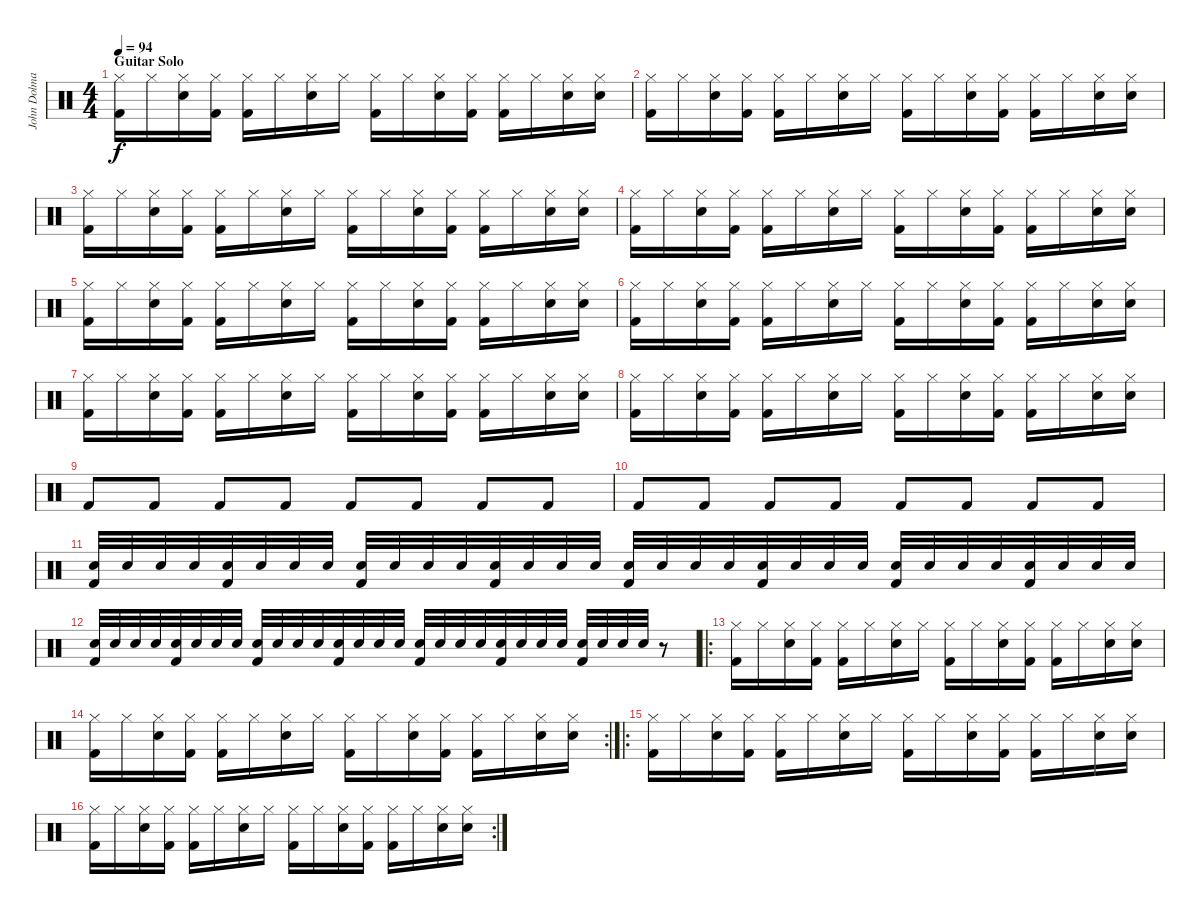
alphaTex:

\track ("John Dolmayan" "John Dolma") {instrument percussion}
\staff {score}
\articulation defaults
\ts (4 4)
\section ("" "Guitar Solo")
\tempo 94
\clef neutral
\ks c
("Kick (hit) 2" "Hi-Hat (closed)").16{dy f} "Hi-Hat (closed)".16 ("Snare (hit) 2" "Hi-Hat (closed)").16 ("Kick (hit) 2" "Hi-Hat (closed)").16 ("Kick (hit) 2" "Hi-Hat (closed)").16 "Hi-Hat (closed)".16 ("Snare (hit) 2" "Hi-Hat (closed)").16 "Hi-Hat (closed)".16 ("Kick (hit) 2" "Hi-Hat (closed)").16 "Hi-Hat (closed)".16 ("Snare (hit) 2" "Hi-Hat (closed)").16 ("Kick (hit) 2" "Hi-Hat (closed)").16 ("Kick (hit) 2" "Hi-Hat (closed)").16 "Hi-Hat (closed)".16 ("Snare (hit) 2" "Hi-Hat (closed)").16 ("Snare (hit) 2" "Hi-Hat (closed)").16 |
("Kick (hit) 2" "Hi-Hat (closed)").16 "Hi-Hat (closed)".16 ("Snare (hit) 2" "Hi-Hat (closed)").16 ("Kick (hit) 2" "Hi-Hat (closed)").16 ("Kick (hit) 2" "Hi-Hat (closed)").16 "Hi-Hat (closed)".16 ("Snare (hit) 2" "Hi-Hat (closed)").16 "Hi-Hat (closed)".16 ("Kick (hit) 2" "Hi-Hat (closed)").16 "Hi-Hat (closed)".16 ("Snare (hit) 2" "Hi-Hat (closed)").16 ("Kick (hit) 2" "Hi-Hat (closed)").16 ("Kick (hit) 2" "Hi-Hat (closed)").16 "Hi-Hat (closed)".16 ("Snare (hit) 2" "Hi-Hat (closed)").16 ("Snare (hit) 2" "Hi-Hat (closed)").16 |
("Kick (hit) 2" "Hi-Hat (closed)").16 "Hi-Hat (closed)".16 ("Snare (hit) 2" "Hi-Hat (closed)").16 ("Kick (hit) 2" "Hi-Hat (closed)").16 ("Kick (hit) 2" "Hi-Hat (closed)").16 "Hi-Hat (closed)".16 ("Snare (hit) 2" "Hi-Hat (closed)").16 "Hi-Hat (closed)".16 ("Kick (hit) 2" "Hi-Hat (closed)").16 "Hi-Hat (closed)".16 ("Snare (hit) 2" "Hi-Hat (closed)").16 ("Kick (hit) 2" "Hi-Hat (closed)").16 ("Kick (hit) 2" "Hi-Hat (closed)").16 "Hi-Hat (closed)".16 ("Snare (hit) 2" "Hi-Hat (closed)").16 ("Snare (hit) 2" "Hi-Hat (closed)").16 |
("Kick (hit) 2" "Hi-Hat (closed)").16 "Hi-Hat (closed)".16 ("Snare (hit) 2" "Hi-Hat (closed)").16 ("Kick (hit) 2" "Hi-Hat (closed)").16 ("Kick (hit) 2" "Hi-Hat (closed)").16 "Hi-Hat (closed)".16 ("Snare (hit) 2" "Hi-Hat (closed)").16 "Hi-Hat (closed)".16 ("Kick (hit) 2" "Hi-Hat (closed)").16 "Hi-Hat (closed)".16 ("Snare (hit) 2" "Hi-Hat (closed)").16 ("Kick (hit) 2" "Hi-Hat (closed)").16 ("Kick (hit) 2" "Hi-Hat (closed)").16 "Hi-Hat (closed)".16 ("Snare (hit) 2" "Hi-Hat (closed)").16 ("Snare (hit) 2" "Hi-Hat (closed)").16 |
("Kick (hit) 2" "Hi-Hat (closed)").16 "Hi-Hat (closed)".16 ("Snare (hit) 2" "Hi-Hat (closed)").16 ("Kick (hit) 2" "Hi-Hat (closed)").16 ("Kick (hit) 2" "Hi-Hat (closed)").16 "Hi-Hat (closed)".16 ("Snare (hit) 2" "Hi-Hat (closed)").16 "Hi-Hat (closed)".16 ("Kick (hit) 2" "Hi-Hat (closed)").16 "Hi-Hat (closed)".16 ("Snare (hit) 2" "Hi-Hat (closed)").16 ("Kick (hit) 2" "Hi-Hat (closed)").16 ("Kick (hit) 2" "Hi-Hat (closed)").16 "Hi-Hat (closed)".16 ("Snare (hit) 2" "Hi-Hat (closed)").16 ("Snare (hit) 2" "Hi-Hat (closed)").16 |
("Kick (hit) 2" "Hi-Hat (closed)").16 "Hi-Hat (closed)".16 ("Snare (hit) 2" "Hi-Hat (closed)").16 ("Kick (hit) 2" "Hi-Hat (closed)").16 ("Kick (hit) 2" "Hi-Hat (closed)").16 "Hi-Hat (closed)".16 ("Snare (hit) 2" "Hi-Hat (closed)").16 "Hi-Hat (closed)".16 ("Kick (hit) 2" "Hi-Hat (closed)").16 "Hi-Hat (closed)".16 ("Snare (hit) 2" "Hi-Hat (closed)").16 ("Kick (hit) 2" "Hi-Hat (closed)").16 ("Kick (hit) 2" "Hi-Hat (closed)").16 "Hi-Hat (closed)".16 ("Snare (hit) 2" "Hi-Hat (closed)").16 ("Snare (hit) 2" "Hi-Hat (closed)").16 |
("Kick (hit) 2" "Hi-Hat (closed)").16 "Hi-Hat (closed)".16 ("Snare (hit) 2" "Hi-Hat (closed)").16 ("Kick (hit) 2" "Hi-Hat (closed)").16 ("Kick (hit) 2" "Hi-Hat (closed)").16 "Hi-Hat (closed)".16 ("Snare (hit) 2" "Hi-Hat (closed)").16 "Hi-Hat (closed)".16 ("Kick (hit) 2" "Hi-Hat (closed)").16 "Hi-Hat (closed)".16 ("Snare (hit) 2" "Hi-Hat (closed)").16 ("Kick (hit) 2" "Hi-Hat (closed)").16 ("Kick (hit) 2" "Hi-Hat (closed)").16 "Hi-Hat (closed)".16 ("Snare (hit) 2" "Hi-Hat (closed)").16 ("Snare (hit) 2" "Hi-Hat (closed)").16 |
("Kick (hit) 2" "Hi-Hat (closed)").16 "Hi-Hat (closed)".16 ("Snare (hit) 2" "Hi-Hat (closed)").16 ("Kick (hit) 2" "Hi-Hat (closed)").16 ("Kick (hit) 2" "Hi-Hat (closed)").16 "Hi-Hat (closed)".16 ("Snare (hit) 2" "Hi-Hat (closed)").16 "Hi-Hat (closed)".16 ("Kick (hit) 2" "Hi-Hat (closed)").16 "Hi-Hat (closed)".16 ("Snare (hit) 2" "Hi-Hat (closed)").16 ("Kick (hit) 2" "Hi-Hat (closed)").16 ("Kick (hit) 2" "Hi-Hat (closed)").16 "Hi-Hat (closed)".16 ("Snare (hit) 2" "Hi-Hat (closed)").16 ("Snare (hit) 2" "Hi-Hat (closed)").16 |
"Kick (hit) 2".8 "Kick (hit) 2".8 "Kick (hit) 2".8 "Kick (hit) 2".8 "Kick (hit) 2".8 "Kick (hit) 2".8 "Kick (hit) 2".8 "Kick (hit) 2".8 |
"Kick (hit) 2".8 "Kick (hit) 2".8 "Kick (hit) 2".8 "Kick (hit) 2".8 "Kick (hit) 2".8 "Kick (hit) 2".8 "Kick (hit) 2".8 "Kick (hit) 2".8 |
("Kick (hit) 2" "Snare (hit) 2").32{volume 0} "Snare (hit) 2".32 "Snare (hit) 2".32 "Snare (hit) 2".32 ("Kick (hit) 2" "Snare (hit) 2").32{volume 1} "Snare (hit) 2".32 "Snare (hit) 2".32 "Snare (hit) 2".32 ("Kick (hit) 2" "Snare (hit) 2").32{volume 2} "Snare (hit) 2".32 "Snare (hit) 2".32 "Snare (hit) 2".32 ("Kick (hit) 2" "Snare (hit) 2").32{volume 3} "Snare (hit) 2".32 "Snare (hit) 2".32 "Snare (hit) 2".32 ("Kick (hit) 2" "Snare (hit) 2").32{volume 4} "Snare (hit) 2".32 "Snare (hit) 2".32 "Snare (hit) 2".32 ("Kick (hit) 2" "Snare (hit) 2").32{volume 5} "Snare (hit) 2".32 "Snare (hit) 2".32 "Snare (hit) 2".32 ("Kick (hit) 2" "Snare (hit) 2").32{volume 6} "Snare (hit) 2".32 "Snare (hit) 2".32 "Snare (hit) 2".32 ("Kick (hit) 2" "Snare (hit) 2").32{volume 7} "Snare (hit) 2".32 "Snare (hit) 2".32 "Snare (hit) 2".32 |
("Kick (hit) 2" "Snare (hit) 2").32{volume 8} "Snare (hit) 2".32 "Snare (hit) 2".32 "Snare (hit) 2".32 ("Kick (hit) 2" "Snare (hit) 2").32{volume 9} "Snare (hit) 2".32 "Snare (hit) 2".32 "Snare (hit) 2".32 ("Kick (hit) 2" "Snare (hit) 2").32{volume 10} "Snare (hit) 2".32 "Snare (hit) 2".32 "Snare (hit) 2".32 ("Kick (hit) 2" "Snare (hit) 2").32{volume 11} "Snare (hit) 2".32 "Snare (hit) 2".32 "Snare (hit) 2".32 ("Kick (hit) 2" "Snare (hit) 2").32{volume 12} "Snare (hit) 2".32 "Snare (hit) 2".32 "Snare (hit) 2".32 ("Kick (hit) 2" "Snare (hit) 2").32{volume 12} "Snare (hit) 2".32 "Snare (hit) 2".32 "Snare (hit) 2".32 ("Kick (hit) 2" "Snare (hit) 2").32{volume 12} "Snare (hit) 2".32 "Snare (hit) 2".32 "Snare (hit) 2".32 r.8 |
\ro
("Kick (hit) 2" "Hi-Hat (closed)").16 "Hi-Hat (closed)".16 ("Snare (hit) 2" "Hi-Hat (closed)").16 ("Kick (hit) 2" "Hi-Hat (closed)").16 ("Kick (hit) 2" "Hi-Hat (closed)").16 "Hi-Hat (closed)".16 ("Snare (hit) 2" "Hi-Hat (closed)").16 "Hi-Hat (closed)".16 ("Kick (hit) 2" "Hi-Hat (closed)").16 "Hi-Hat (closed)".16 ("Snare (hit) 2" "Hi-Hat (closed)").16 ("Kick (hit) 2" "Hi-Hat (closed)").16 ("Kick (hit) 2" "Hi-Hat (closed)").16 "Hi-Hat (closed)".16 ("Snare (hit) 2" "Hi-Hat (closed)").16 ("Snare (hit) 2" "Hi-Hat (closed)").16 |
\rc 2
("Kick (hit) 2" "Hi-Hat (closed)").16 "Hi-Hat (closed)".16 ("Snare (hit) 2" "Hi-Hat (closed)").16 ("Kick (hit) 2" "Hi-Hat (closed)").16 ("Kick (hit) 2" "Hi-Hat (closed)").16 "Hi-Hat (closed)".16 ("Snare (hit) 2" "Hi-Hat (closed)").16 "Hi-Hat (closed)".16 ("Kick (hit) 2" "Hi-Hat (closed)").16 "Hi-Hat (closed)".16 ("Snare (hit) 2" "Hi-Hat (closed)").16 ("Kick (hit) 2" "Hi-Hat (closed)").16 ("Kick (hit) 2" "Hi-Hat (closed)").16 "Hi-Hat (closed)".16 ("Snare (hit) 2" "Hi-Hat (closed)").16 ("Snare (hit) 2" "Hi-Hat (closed)").16 |
\ro
("Kick (hit) 2" "Hi-Hat (closed)").16 "Hi-Hat (closed)".16 ("Snare (hit) 2" "Hi-Hat (closed)").16 ("Kick (hit) 2" "Hi-Hat (closed)").16 ("Kick (hit) 2" "Hi-Hat (closed)").16 "Hi-Hat (closed)".16 ("Snare (hit) 2" "Hi-Hat (closed)").16 "Hi-Hat (closed)".16 ("Kick (hit) 2" "Hi-Hat (closed)").16 "Hi-Hat (closed)".16 ("Snare (hit) 2" "Hi-Hat (closed)").16 ("Kick (hit) 2" "Hi-Hat (closed)").16 ("Kick (hit) 2" "Hi-Hat (closed)").16 "Hi-Hat (closed)".16 ("Snare (hit) 2" "Hi-Hat (closed)").16 ("Snare (hit) 2" "Hi-Hat (closed)").16 |
\rc 2
("Kick (hit) 2" "Hi-Hat (closed)").16 "Hi-Hat (closed)".16 ("Snare (hit) 2" "Hi-Hat (closed)").16 ("Kick (hit) 2" "Hi-Hat (closed)").16 ("Kick (hit) 2" "Hi-Hat (closed)").16 "Hi-Hat (closed)".16 ("Snare (hit) 2" "Hi-Hat (closed)").16 "Hi-Hat (closed)".16 ("Kick (hit) 2" "Hi-Hat (closed)").16 "Hi-Hat (closed)".16 ("Snare (hit) 2" "Hi-Hat (closed)").16 ("Kick (hit) 2" "Hi-Hat (closed)").16 ("Kick (hit) 2" "Hi-Hat (closed)").16 "Hi-Hat (closed)".16 ("Snare (hit) 2" "Hi-Hat (closed)").16 ("Snare (hit) 2" "Hi-Hat (closed)").16
